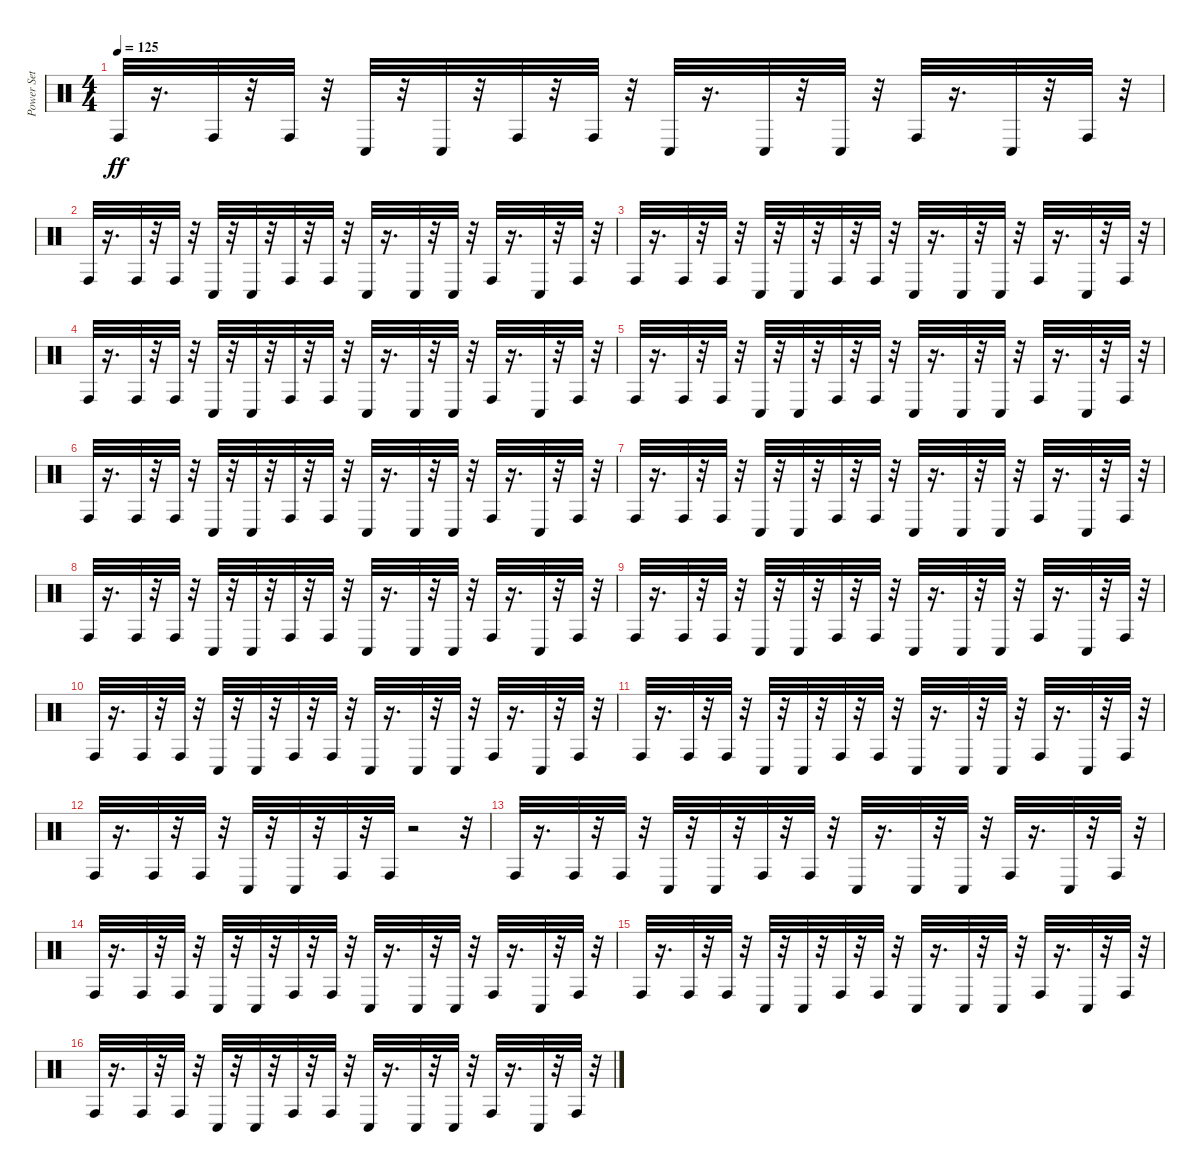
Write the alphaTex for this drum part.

\track ("Power Set" "Power Set") {instrument percussion}
\staff {score}
\articulation defaults
\ts (4 4)
\tempo 125
\clef neutral
\ks c "Conga high (hit)".32{dy ff}
r.16{d} "Conga high (hit)".32 r.32 "Conga high (hit)".32 r.32 "Conga low (hit)".32 r.32 "Conga low (hit)".32 r.32 "Conga high (hit)".32 r.32 "Conga high (hit)".32 r.32 "Conga low (hit)".32 r.16{d} "Conga low (hit)".32 r.32 "Conga low (hit)".32 r.32 "Conga high (hit)".32 r.16{d} "Conga low (hit)".32 r.32 "Conga high (hit)".32 r.32 |
"Conga high (hit)".32 r.16{d} "Conga high (hit)".32 r.32 "Conga high (hit)".32 r.32 "Conga low (hit)".32 r.32 "Conga low (hit)".32 r.32 "Conga high (hit)".32 r.32 "Conga high (hit)".32 r.32 "Conga low (hit)".32 r.16{d} "Conga low (hit)".32 r.32 "Conga low (hit)".32 r.32 "Conga high (hit)".32 r.16{d} "Conga low (hit)".32 r.32 "Conga high (hit)".32 r.32 |
"Conga high (hit)".32 r.16{d} "Conga high (hit)".32 r.32 "Conga high (hit)".32 r.32 "Conga low (hit)".32 r.32 "Conga low (hit)".32 r.32 "Conga high (hit)".32 r.32 "Conga high (hit)".32 r.32 "Conga low (hit)".32 r.16{d} "Conga low (hit)".32 r.32 "Conga low (hit)".32 r.32 "Conga high (hit)".32 r.16{d} "Conga low (hit)".32 r.32 "Conga high (hit)".32 r.32 |
"Conga high (hit)".32 r.16{d} "Conga high (hit)".32 r.32 "Conga high (hit)".32 r.32 "Conga low (hit)".32 r.32 "Conga low (hit)".32 r.32 "Conga high (hit)".32 r.32 "Conga high (hit)".32 r.32 "Conga low (hit)".32 r.16{d} "Conga low (hit)".32 r.32 "Conga low (hit)".32 r.32 "Conga high (hit)".32 r.16{d} "Conga low (hit)".32 r.32 "Conga high (hit)".32 r.32 |
"Conga high (hit)".32 r.16{d} "Conga high (hit)".32 r.32 "Conga high (hit)".32 r.32 "Conga low (hit)".32 r.32 "Conga low (hit)".32 r.32 "Conga high (hit)".32 r.32 "Conga high (hit)".32 r.32 "Conga low (hit)".32 r.16{d} "Conga low (hit)".32 r.32 "Conga low (hit)".32 r.32 "Conga high (hit)".32 r.16{d} "Conga low (hit)".32 r.32 "Conga high (hit)".32 r.32 |
"Conga high (hit)".32 r.16{d} "Conga high (hit)".32 r.32 "Conga high (hit)".32 r.32 "Conga low (hit)".32 r.32 "Conga low (hit)".32 r.32 "Conga high (hit)".32 r.32 "Conga high (hit)".32 r.32 "Conga low (hit)".32 r.16{d} "Conga low (hit)".32 r.32 "Conga low (hit)".32 r.32 "Conga high (hit)".32 r.16{d} "Conga low (hit)".32 r.32 "Conga high (hit)".32 r.32 |
"Conga high (hit)".32 r.16{d} "Conga high (hit)".32 r.32 "Conga high (hit)".32 r.32 "Conga low (hit)".32 r.32 "Conga low (hit)".32 r.32 "Conga high (hit)".32 r.32 "Conga high (hit)".32 r.32 "Conga low (hit)".32 r.16{d} "Conga low (hit)".32 r.32 "Conga low (hit)".32 r.32 "Conga high (hit)".32 r.16{d} "Conga low (hit)".32 r.32 "Conga high (hit)".32 r.32 |
"Conga high (hit)".32 r.16{d} "Conga high (hit)".32 r.32 "Conga high (hit)".32 r.32 "Conga low (hit)".32 r.32 "Conga low (hit)".32 r.32 "Conga high (hit)".32 r.32 "Conga high (hit)".32 r.32 "Conga low (hit)".32 r.16{d} "Conga low (hit)".32 r.32 "Conga low (hit)".32 r.32 "Conga high (hit)".32 r.16{d} "Conga low (hit)".32 r.32 "Conga high (hit)".32 r.32 |
"Conga high (hit)".32 r.16{d} "Conga high (hit)".32 r.32 "Conga high (hit)".32 r.32 "Conga low (hit)".32 r.32 "Conga low (hit)".32 r.32 "Conga high (hit)".32 r.32 "Conga high (hit)".32 r.32 "Conga low (hit)".32 r.16{d} "Conga low (hit)".32 r.32 "Conga low (hit)".32 r.32 "Conga high (hit)".32 r.16{d} "Conga low (hit)".32 r.32 "Conga high (hit)".32 r.32 |
"Conga high (hit)".32 r.16{d} "Conga high (hit)".32 r.32 "Conga high (hit)".32 r.32 "Conga low (hit)".32 r.32 "Conga low (hit)".32 r.32 "Conga high (hit)".32 r.32 "Conga high (hit)".32 r.32 "Conga low (hit)".32 r.16{d} "Conga low (hit)".32 r.32 "Conga low (hit)".32 r.32 "Conga high (hit)".32 r.16{d} "Conga low (hit)".32 r.32 "Conga high (hit)".32 r.32 |
"Conga high (hit)".32 r.16{d} "Conga high (hit)".32 r.32 "Conga high (hit)".32 r.32 "Conga low (hit)".32 r.32 "Conga low (hit)".32 r.32 "Conga high (hit)".32 r.32 "Conga high (hit)".32 r.32 "Conga low (hit)".32 r.16{d} "Conga low (hit)".32 r.32 "Conga low (hit)".32 r.32 "Conga high (hit)".32 r.16{d} "Conga low (hit)".32 r.32 "Conga high (hit)".32 r.32 |
"Conga high (hit)".32 r.16{d} "Conga high (hit)".32 r.32 "Conga high (hit)".32 r.32 "Conga low (hit)".32 r.32 "Conga low (hit)".32 r.32 "Conga high (hit)".32 r.32 "Conga high (hit)".32 r.2 r.32 |
"Conga high (hit)".32 r.16{d} "Conga high (hit)".32 r.32 "Conga high (hit)".32 r.32 "Conga low (hit)".32 r.32 "Conga low (hit)".32 r.32 "Conga high (hit)".32 r.32 "Conga high (hit)".32 r.32 "Conga low (hit)".32 r.16{d} "Conga low (hit)".32 r.32 "Conga low (hit)".32 r.32 "Conga high (hit)".32 r.16{d} "Conga low (hit)".32 r.32 "Conga high (hit)".32 r.32 |
"Conga high (hit)".32 r.16{d} "Conga high (hit)".32 r.32 "Conga high (hit)".32 r.32 "Conga low (hit)".32 r.32 "Conga low (hit)".32 r.32 "Conga high (hit)".32 r.32 "Conga high (hit)".32 r.32 "Conga low (hit)".32 r.16{d} "Conga low (hit)".32 r.32 "Conga low (hit)".32 r.32 "Conga high (hit)".32 r.16{d} "Conga low (hit)".32 r.32 "Conga high (hit)".32 r.32 |
"Conga high (hit)".32 r.16{d} "Conga high (hit)".32 r.32 "Conga high (hit)".32 r.32 "Conga low (hit)".32 r.32 "Conga low (hit)".32 r.32 "Conga high (hit)".32 r.32 "Conga high (hit)".32 r.32 "Conga low (hit)".32 r.16{d} "Conga low (hit)".32 r.32 "Conga low (hit)".32 r.32 "Conga high (hit)".32 r.16{d} "Conga low (hit)".32 r.32 "Conga high (hit)".32 r.32 |
"Conga high (hit)".32 r.16{d} "Conga high (hit)".32 r.32 "Conga high (hit)".32 r.32 "Conga low (hit)".32 r.32 "Conga low (hit)".32 r.32 "Conga high (hit)".32 r.32 "Conga high (hit)".32 r.32 "Conga low (hit)".32 r.16{d} "Conga low (hit)".32 r.32 "Conga low (hit)".32 r.32 "Conga high (hit)".32 r.16{d} "Conga low (hit)".32 r.32 "Conga high (hit)".32 r.32
